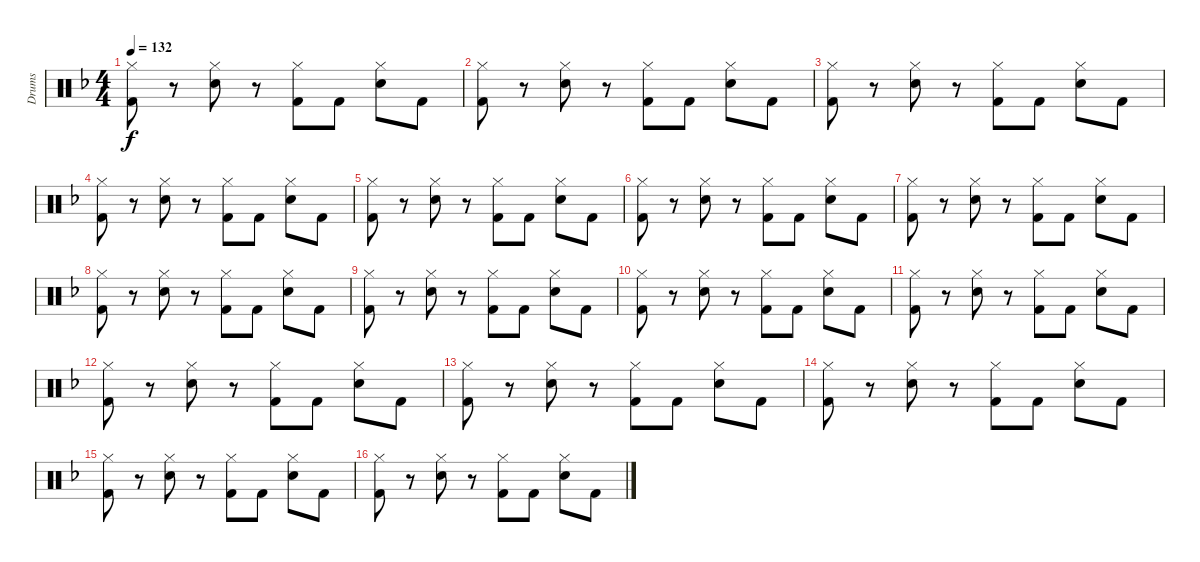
\track ("Drums" "Drums") {instrument percussion}
\staff {score}
\articulation defaults
\ts (4 4)
\tempo 132
\clef neutral
\ks f
("Hi-Hat (closed)" "Kick (hit) 2").8{dy f} r.8 ("Hi-Hat (closed)" "Snare (hit) 2").8 r.8 ("Hi-Hat (closed)" "Kick (hit) 2").8 "Kick (hit) 2".8 ("Hi-Hat (closed)" "Snare (hit) 2").8 "Kick (hit) 2".8 |
("Hi-Hat (closed)" "Kick (hit) 2").8 r.8 ("Hi-Hat (closed)" "Snare (hit) 2").8 r.8 ("Hi-Hat (closed)" "Kick (hit) 2").8 "Kick (hit) 2".8 ("Hi-Hat (closed)" "Snare (hit) 2").8 "Kick (hit) 2".8 |
("Hi-Hat (closed)" "Kick (hit) 2").8 r.8 ("Hi-Hat (closed)" "Snare (hit) 2").8 r.8 ("Hi-Hat (closed)" "Kick (hit) 2").8 "Kick (hit) 2".8 ("Hi-Hat (closed)" "Snare (hit) 2").8 "Kick (hit) 2".8 |
("Hi-Hat (closed)" "Kick (hit) 2").8 r.8 ("Hi-Hat (closed)" "Snare (hit) 2").8 r.8 ("Hi-Hat (closed)" "Kick (hit) 2").8 "Kick (hit) 2".8 ("Hi-Hat (closed)" "Snare (hit) 2").8 "Kick (hit) 2".8 |
("Hi-Hat (closed)" "Kick (hit) 2").8 r.8 ("Hi-Hat (closed)" "Snare (hit) 2").8 r.8 ("Hi-Hat (closed)" "Kick (hit) 2").8 "Kick (hit) 2".8 ("Hi-Hat (closed)" "Snare (hit) 2").8 "Kick (hit) 2".8 |
("Hi-Hat (closed)" "Kick (hit) 2").8 r.8 ("Hi-Hat (closed)" "Snare (hit) 2").8 r.8 ("Hi-Hat (closed)" "Kick (hit) 2").8 "Kick (hit) 2".8 ("Hi-Hat (closed)" "Snare (hit) 2").8 "Kick (hit) 2".8 |
("Hi-Hat (closed)" "Kick (hit) 2").8 r.8 ("Hi-Hat (closed)" "Snare (hit) 2").8 r.8 ("Hi-Hat (closed)" "Kick (hit) 2").8 "Kick (hit) 2".8 ("Hi-Hat (closed)" "Snare (hit) 2").8 "Kick (hit) 2".8 |
("Hi-Hat (closed)" "Kick (hit) 2").8 r.8 ("Hi-Hat (closed)" "Snare (hit) 2").8 r.8 ("Hi-Hat (closed)" "Kick (hit) 2").8 "Kick (hit) 2".8 ("Hi-Hat (closed)" "Snare (hit) 2").8 "Kick (hit) 2".8 |
("Hi-Hat (closed)" "Kick (hit) 2").8 r.8 ("Hi-Hat (closed)" "Snare (hit) 2").8 r.8 ("Hi-Hat (closed)" "Kick (hit) 2").8 "Kick (hit) 2".8 ("Hi-Hat (closed)" "Snare (hit) 2").8 "Kick (hit) 2".8 |
("Hi-Hat (closed)" "Kick (hit) 2").8 r.8 ("Hi-Hat (closed)" "Snare (hit) 2").8 r.8 ("Hi-Hat (closed)" "Kick (hit) 2").8 "Kick (hit) 2".8 ("Hi-Hat (closed)" "Snare (hit) 2").8 "Kick (hit) 2".8 |
("Hi-Hat (closed)" "Kick (hit) 2").8 r.8 ("Hi-Hat (closed)" "Snare (hit) 2").8 r.8 ("Hi-Hat (closed)" "Kick (hit) 2").8 "Kick (hit) 2".8 ("Hi-Hat (closed)" "Snare (hit) 2").8 "Kick (hit) 2".8 |
("Hi-Hat (closed)" "Kick (hit) 2").8 r.8 ("Hi-Hat (closed)" "Snare (hit) 2").8 r.8 ("Hi-Hat (closed)" "Kick (hit) 2").8 "Kick (hit) 2".8 ("Hi-Hat (closed)" "Snare (hit) 2").8 "Kick (hit) 2".8 |
("Hi-Hat (closed)" "Kick (hit) 2").8 r.8 ("Hi-Hat (closed)" "Snare (hit) 2").8 r.8 ("Hi-Hat (closed)" "Kick (hit) 2").8 "Kick (hit) 2".8 ("Hi-Hat (closed)" "Snare (hit) 2").8 "Kick (hit) 2".8 |
("Hi-Hat (closed)" "Kick (hit) 2").8 r.8 ("Hi-Hat (closed)" "Snare (hit) 2").8 r.8 ("Hi-Hat (closed)" "Kick (hit) 2").8 "Kick (hit) 2".8 ("Hi-Hat (closed)" "Snare (hit) 2").8 "Kick (hit) 2".8 |
("Hi-Hat (closed)" "Kick (hit) 2").8 r.8 ("Hi-Hat (closed)" "Snare (hit) 2").8 r.8 ("Hi-Hat (closed)" "Kick (hit) 2").8 "Kick (hit) 2".8 ("Hi-Hat (closed)" "Snare (hit) 2").8 "Kick (hit) 2".8 |
("Hi-Hat (closed)" "Kick (hit) 2").8 r.8 ("Hi-Hat (closed)" "Snare (hit) 2").8 r.8 ("Hi-Hat (closed)" "Kick (hit) 2").8 "Kick (hit) 2".8 ("Hi-Hat (closed)" "Snare (hit) 2").8 "Kick (hit) 2".8
